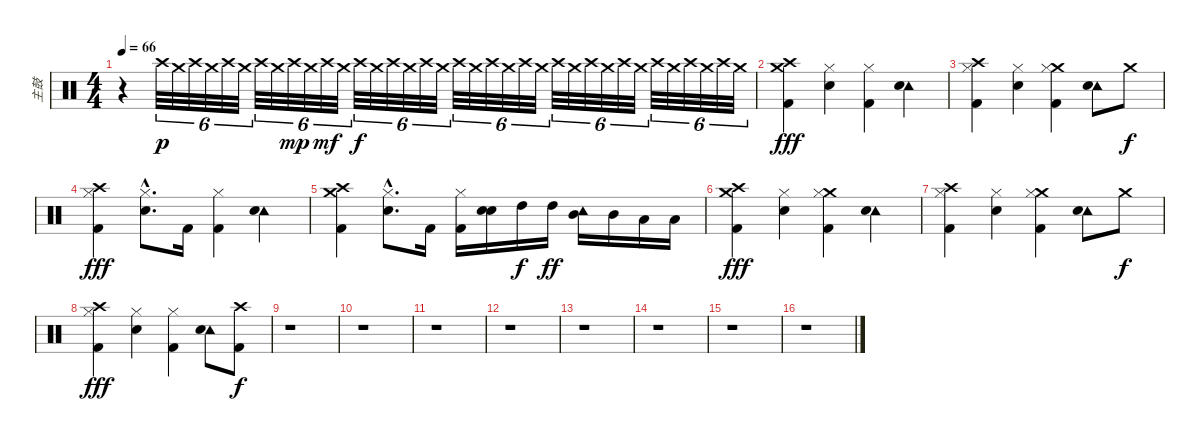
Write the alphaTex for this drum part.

\track ("主鼓" "主鼓") {instrument percussion}
\staff {score}
\articulation defaults
\ts (4 4)
\tempo 66
\clef neutral
\ks c
r.4{dy p balance 5} "Crash high (hit)".32{tu (6 4) volume 1} "Crash medium (hit)".32{tu (6 4)} "Crash high (hit)".32{tu (6 4)} "Crash medium (hit)".32{tu (6 4)} "Crash high (hit)".32{tu (6 4)} "Crash medium (hit)".32{tu (6 4)} "Crash high (hit)".32{tu (6 4)} "Crash medium (hit)".32{tu (6 4)} "Crash high (hit)".32{tu (6 4) dy mp volume 2} "Crash medium (hit)".32{tu (6 4)} "Crash high (hit)".32{tu (6 4) dy mf volume 5} "Crash medium (hit)".32{tu (6 4)} "Crash high (hit)".32{tu (6 4) dy f volume 8 balance 12} "Crash medium (hit)".32{tu (6 4)} "Crash high (hit)".32{tu (6 4)} "Crash medium (hit)".32{tu (6 4)} "Crash high (hit)".32{tu (6 4)} "Crash medium (hit)".32{tu (6 4)} "Crash high (hit)".32{tu (6 4)} "Crash medium (hit)".32{tu (6 4)} "Crash high (hit)".32{tu (6 4)} "Crash medium (hit)".32{tu (6 4)} "Crash high (hit)".32{tu (6 4)} "Crash medium (hit)".32{tu (6 4)} "Crash high (hit)".32{tu (6 4)} "Crash medium (hit)".32{tu (6 4)} "Crash high (hit)".32{tu (6 4)} "Crash medium (hit)".32{tu (6 4)} "Crash high (hit)".32{tu (6 4)} "Crash medium (hit)".32{tu (6 4)} "Crash high (hit)".32{tu (6 4)} "Crash medium (hit)".32{tu (6 4)} "Crash high (hit)".32{tu (6 4)} "Crash medium (hit)".32{tu (6 4)} "Crash high (hit)".32{tu (6 4)} "Crash medium (hit)".32{tu (6 4)} |
("Crash high (hit)" "Crash medium (hit)" "Kick (hit) 2").4{dy fff volume 16 balance 5} ("Hi-Hat (closed)" "Snare (hit) 2").4 ("Hi-Hat (closed)" "Kick (hit) 2").4 ("Tambourine (hit)" "Snare (hit) 2").4 |
("Crash high (hit)" "Hi-Hat (closed)" "Kick (hit) 2").4 ("Hi-Hat (closed)" "Snare (hit) 2").4 ("Crash medium (hit)" "Hi-Hat (closed)" "Kick (hit) 2").4 ("Tambourine (hit)" "Snare (hit) 2").8 "Crash medium (hit)".8{dy f} |
("Crash high (hit)" "Hi-Hat (closed)" "Kick (hit) 2").4{dy fff} ("Hi-Hat (closed)"{hac} "Snare (hit) 2"{hac}).8{d} "Kick (hit) 2".16 ("Hi-Hat (closed)" "Kick (hit) 2").4 ("Tambourine (hit)" "Snare (hit) 2").4 |
("Crash high (hit)" "Crash medium (hit)" "Kick (hit) 2").4 ("Hi-Hat (closed)"{hac} "Snare (hit) 2"{hac}).8{d} "Kick (hit) 2".16 ("Hi-Hat (closed)" "Kick (hit) 2").16 ("Snare (hit) 2" "Snare (hit) 2").16 "High Tom (hit)".16{dy f} "High Tom (hit)".16{dy ff} ("Tambourine (hit)" "Mid Tom (hit)").16 "Mid Tom (hit)".16 "Low Tom (hit)".16 "Low Tom (hit)".16 |
("Crash high (hit)" "Crash medium (hit)" "Kick (hit) 2").4{dy fff} ("Hi-Hat (closed)" "Snare (hit) 2").4 ("Crash medium (hit)" "Hi-Hat (closed)" "Kick (hit) 2").4 ("Tambourine (hit)" "Snare (hit) 2").4 |
("Crash high (hit)" "Hi-Hat (closed)" "Kick (hit) 2").4 ("Hi-Hat (closed)" "Snare (hit) 2").4 ("Crash medium (hit)" "Hi-Hat (closed)" "Kick (hit) 2").4 ("Tambourine (hit)" "Snare (hit) 2").8 "Crash medium (hit)".8{dy f} |
("Crash high (hit)" "Hi-Hat (closed)" "Kick (hit) 2").4{dy fff} ("Hi-Hat (closed)" "Snare (hit) 2").4 ("Hi-Hat (closed)" "Kick (hit) 2").4 ("Tambourine (hit)" "Snare (hit) 2").8 ("Crash high (hit)" "Kick (hit) 2").8{dy f} |
r.1 |
r.1 |
r.1 |
r.1 |
r.1 |
r.1 |
r.1 |
r.1
